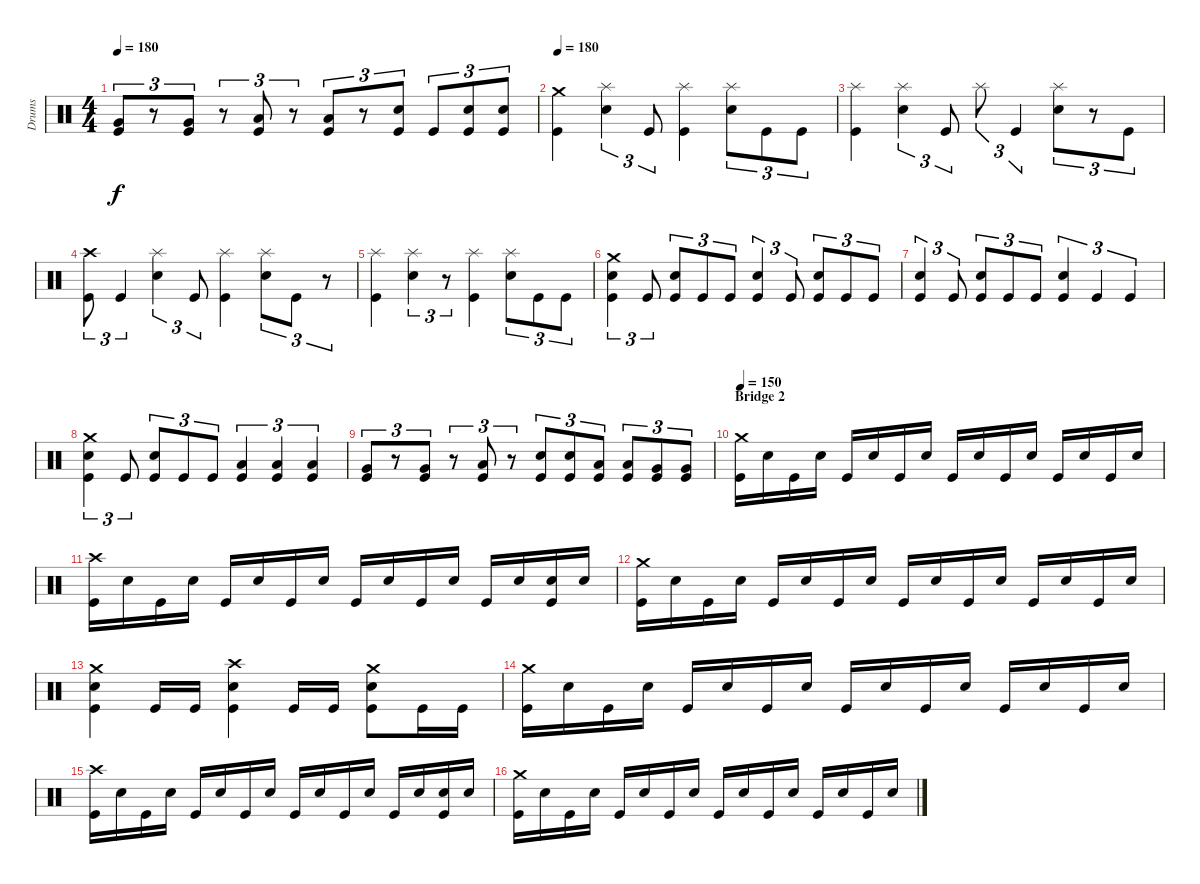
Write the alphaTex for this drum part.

\track ("Drums" "Drums") {instrument percussion}
\staff {score}
\articulation defaults
\ts (4 4)
\tempo 180
\clef neutral
\ks c
("Very Low Tom (hit)" "Kick (hit)").8{tu (3 2) dy f} r.8{tu (3 2)} ("Very Low Tom (hit)" "Kick (hit)").8{tu (3 2)} r.8{tu (3 2)} ("Low Floor Tom (hit)" "Kick (hit)").8{tu (3 2)} r.8{tu (3 2)} ("Low Floor Tom (hit)" "Kick (hit)").8{tu (3 2)} r.8{tu (3 2)} ("Electric Snare (hit)" "Kick (hit)").8{tu (3 2)} "Kick (hit)".8{tu (3 2)} ("Electric Snare (hit)" "Kick (hit)").8{tu (3 2)} ("Electric Snare (hit)" "Kick (hit)").8{tu (3 2)} |
\tempo 180
("Crash medium (hit)" "Kick (hit)").4 ("Splash (hit)" "Electric Snare (hit)").4{tu (3 2)} "Kick (hit)".8{tu (3 2)} ("Splash (hit)" "Kick (hit)").4 ("Splash (hit)" "Electric Snare (hit)").8{tu (3 2)} "Kick (hit)".8{tu (3 2)} "Kick (hit)".8{tu (3 2)} |
("Splash (hit)" "Kick (hit)").4 ("Splash (hit)" "Electric Snare (hit)").4{tu (3 2)} "Kick (hit)".8{tu (3 2)} "Splash (hit)".8{tu (3 2)} "Kick (hit)".4{tu (3 2)} ("Splash (hit)" "Electric Snare (hit)").8{tu (3 2)} r.8{tu (3 2)} "Kick (hit)".8{tu (3 2)} |
("Crash high (hit)" "Kick (hit)").8{tu (3 2)} "Kick (hit)".4{tu (3 2)} ("Splash (hit)" "Electric Snare (hit)").4{tu (3 2)} "Kick (hit)".8{tu (3 2)} ("Splash (hit)" "Kick (hit)").4 ("Splash (hit)" "Electric Snare (hit)").8{tu (3 2)} "Kick (hit)".8{tu (3 2)} r.8{tu (3 2)} |
("Splash (hit)" "Kick (hit)").4 ("Splash (hit)" "Electric Snare (hit)").4{tu (3 2)} r.8{tu (3 2)} ("Splash (hit)" "Kick (hit)").4 ("Splash (hit)" "Electric Snare (hit)").8{tu (3 2)} "Kick (hit)".8{tu (3 2)} "Kick (hit)".8{tu (3 2)} |
("Crash medium (hit)" "Electric Snare (hit)" "Kick (hit)").4{tu (3 2)} "Kick (hit)".8{tu (3 2)} ("Electric Snare (hit)" "Kick (hit)").8{tu (3 2)} "Kick (hit)".8{tu (3 2)} "Kick (hit)".8{tu (3 2)} ("Electric Snare (hit)" "Kick (hit)").4{tu (3 2)} "Kick (hit)".8{tu (3 2)} ("Electric Snare (hit)" "Kick (hit)").8{tu (3 2)} "Kick (hit)".8{tu (3 2)} "Kick (hit)".8{tu (3 2)} |
("Electric Snare (hit)" "Kick (hit)").4{tu (3 2)} "Kick (hit)".8{tu (3 2)} ("Electric Snare (hit)" "Kick (hit)").8{tu (3 2)} "Kick (hit)".8{tu (3 2)} "Kick (hit)".8{tu (3 2)} ("Electric Snare (hit)" "Kick (hit)").4{tu (3 2)} "Kick (hit)".4{tu (3 2)} "Kick (hit)".4{tu (3 2)} |
("Crash medium (hit)" "Electric Snare (hit)" "Kick (hit)").4{tu (3 2)} "Kick (hit)".8{tu (3 2)} ("Electric Snare (hit)" "Kick (hit)").8{tu (3 2)} "Kick (hit)".8{tu (3 2)} "Kick (hit)".8{tu (3 2)} ("Low Floor Tom (hit)" "Kick (hit)").4{tu (3 2)} ("Low Floor Tom (hit)" "Kick (hit)").4{tu (3 2)} ("Low Floor Tom (hit)" "Kick (hit)").4{tu (3 2)} |
("Very Low Tom (hit)" "Kick (hit)").8{tu (3 2)} r.8{tu (3 2)} ("Very Low Tom (hit)" "Kick (hit)").8{tu (3 2)} r.8{tu (3 2)} ("Low Floor Tom (hit)" "Kick (hit)").8{tu (3 2)} r.8{tu (3 2)} ("Electric Snare (hit)" "Kick (hit)").8{tu (3 2)} ("Electric Snare (hit)" "Kick (hit)").8{tu (3 2)} ("Low Tom (hit)" "Kick (hit)").8{tu (3 2)} ("Low Tom (hit)" "Kick (hit)").8{tu (3 2)} ("Very Low Tom (hit)" "Kick (hit)").8{tu (3 2)} ("Very Low Tom (hit)" "Kick (hit)").8{tu (3 2)} |
\section ("" "Bridge 2")
\tempo 150
("Crash medium (hit)" "Kick (hit)").16 "Electric Snare (hit)".16 "Kick (hit)".16 "Electric Snare (hit)".16 "Kick (hit)".16 "Electric Snare (hit)".16 "Kick (hit)".16 "Electric Snare (hit)".16 "Kick (hit)".16 "Electric Snare (hit)".16 "Kick (hit)".16 "Electric Snare (hit)".16 "Kick (hit)".16 "Electric Snare (hit)".16 "Kick (hit)".16 "Electric Snare (hit)".16 |
("Crash high (hit)" "Kick (hit)").16 "Electric Snare (hit)".16 "Kick (hit)".16 "Electric Snare (hit)".16 "Kick (hit)".16 "Electric Snare (hit)".16 "Kick (hit)".16 "Electric Snare (hit)".16 "Kick (hit)".16 "Electric Snare (hit)".16 "Kick (hit)".16 "Electric Snare (hit)".16 "Kick (hit)".16 "Electric Snare (hit)".16 ("Electric Snare (hit)" "Kick (hit)").16 "Electric Snare (hit)".16 |
("Crash medium (hit)" "Kick (hit)").16 "Electric Snare (hit)".16 "Kick (hit)".16 "Electric Snare (hit)".16 "Kick (hit)".16 "Electric Snare (hit)".16 "Kick (hit)".16 "Electric Snare (hit)".16 "Kick (hit)".16 "Electric Snare (hit)".16 "Kick (hit)".16 "Electric Snare (hit)".16 "Kick (hit)".16 "Electric Snare (hit)".16 "Kick (hit)".16 "Electric Snare (hit)".16 |
("Crash medium (hit)" "Electric Snare (hit)" "Kick (hit)").4 "Kick (hit)".16 "Kick (hit)".16 ("Crash high (hit)" "Electric Snare (hit)" "Kick (hit)").4 "Kick (hit)".16 "Kick (hit)".16 ("Crash medium (hit)" "Electric Snare (hit)" "Kick (hit)").8 "Kick (hit)".16 "Kick (hit)".16 |
("Crash medium (hit)" "Kick (hit)").16 "Electric Snare (hit)".16 "Kick (hit)".16 "Electric Snare (hit)".16 "Kick (hit)".16 "Electric Snare (hit)".16 "Kick (hit)".16 "Electric Snare (hit)".16 "Kick (hit)".16 "Electric Snare (hit)".16 "Kick (hit)".16 "Electric Snare (hit)".16 "Kick (hit)".16 "Electric Snare (hit)".16 "Kick (hit)".16 "Electric Snare (hit)".16 |
("Crash high (hit)" "Kick (hit)").16 "Electric Snare (hit)".16 "Kick (hit)".16 "Electric Snare (hit)".16 "Kick (hit)".16 "Electric Snare (hit)".16 "Kick (hit)".16 "Electric Snare (hit)".16 "Kick (hit)".16 "Electric Snare (hit)".16 "Kick (hit)".16 "Electric Snare (hit)".16 "Kick (hit)".16 "Electric Snare (hit)".16 ("Electric Snare (hit)" "Kick (hit)").16 "Electric Snare (hit)".16 |
("Crash medium (hit)" "Kick (hit)").16 "Electric Snare (hit)".16 "Kick (hit)".16 "Electric Snare (hit)".16 "Kick (hit)".16 "Electric Snare (hit)".16 "Kick (hit)".16 "Electric Snare (hit)".16 "Kick (hit)".16 "Electric Snare (hit)".16 "Kick (hit)".16 "Electric Snare (hit)".16 "Kick (hit)".16 "Electric Snare (hit)".16 "Kick (hit)".16 "Electric Snare (hit)".16
